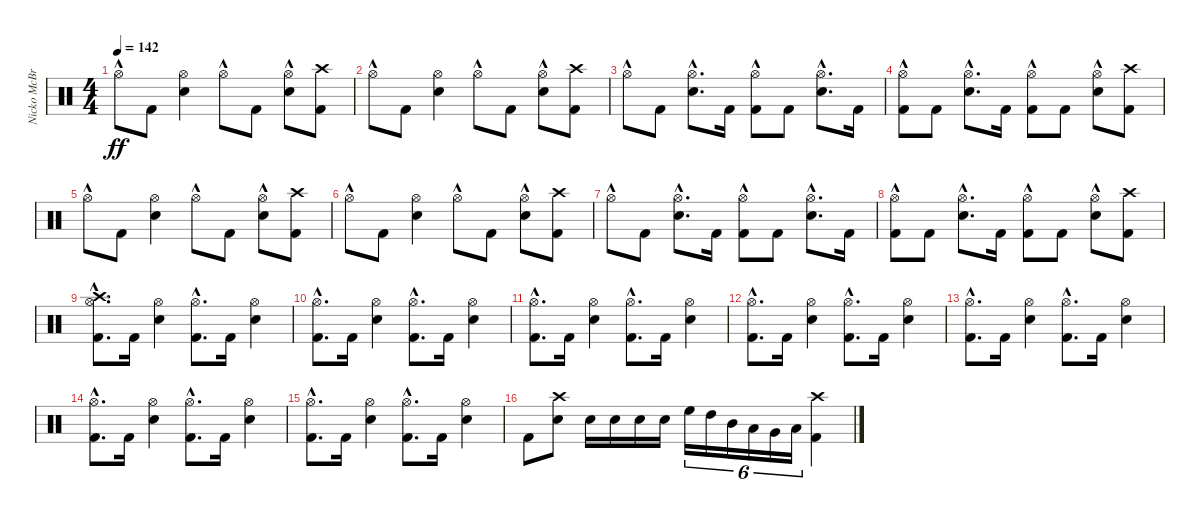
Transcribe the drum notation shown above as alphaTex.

\track ("Nicko McBrain" "Nicko McBr") {instrument percussion}
\staff {score}
\articulation defaults
\ts (4 4)
\tempo 142
\clef neutral
\ks c "Hi-Hat (open)"{hac}.8{dy ff} "Kick (hit) 2".8
("Snare (hit) 2" "Hi-Hat (open)").4 "Hi-Hat (open)"{hac}.8 "Kick (hit) 2".8 ("Snare (hit) 2" "Hi-Hat (open)"{hac}).8 ("Kick (hit) 2" "Crash high (hit)").8 |
"Hi-Hat (open)"{hac}.8 "Kick (hit) 2".8 ("Snare (hit) 2" "Hi-Hat (open)").4 "Hi-Hat (open)"{hac}.8 "Kick (hit) 2".8 ("Snare (hit) 2" "Hi-Hat (open)"{hac}).8 ("Kick (hit) 2" "Crash high (hit)").8 |
"Hi-Hat (open)"{hac}.8 "Kick (hit) 2".8 ("Snare (hit) 2"{hac} "Hi-Hat (open)"{hac}).8{d} "Kick (hit) 2".16 ("Kick (hit) 2" "Hi-Hat (open)"{hac}).8 "Kick (hit) 2".8 ("Snare (hit) 2"{hac} "Hi-Hat (open)"{hac}).8{d} "Kick (hit) 2".16 |
("Kick (hit) 2" "Hi-Hat (open)"{hac}).8 "Kick (hit) 2".8 ("Snare (hit) 2"{hac} "Hi-Hat (open)"{hac}).8{d} "Kick (hit) 2".16 ("Kick (hit) 2" "Hi-Hat (open)"{hac}).8 "Kick (hit) 2".8 ("Snare (hit) 2" "Hi-Hat (open)"{hac}).8 ("Kick (hit) 2" "Crash high (hit)").8 |
"Hi-Hat (open)"{hac}.8 "Kick (hit) 2".8 ("Snare (hit) 2" "Hi-Hat (open)").4 "Hi-Hat (open)"{hac}.8 "Kick (hit) 2".8 ("Snare (hit) 2" "Hi-Hat (open)"{hac}).8 ("Kick (hit) 2" "Crash high (hit)").8 |
"Hi-Hat (open)"{hac}.8 "Kick (hit) 2".8 ("Snare (hit) 2" "Hi-Hat (open)").4 "Hi-Hat (open)"{hac}.8 "Kick (hit) 2".8 ("Snare (hit) 2" "Hi-Hat (open)"{hac}).8 ("Kick (hit) 2" "Crash high (hit)").8 |
"Hi-Hat (open)"{hac}.8 "Kick (hit) 2".8 ("Snare (hit) 2"{hac} "Hi-Hat (open)"{hac}).8{d} "Kick (hit) 2".16 ("Kick (hit) 2" "Hi-Hat (open)"{hac}).8 "Kick (hit) 2".8 ("Snare (hit) 2"{hac} "Hi-Hat (open)"{hac}).8{d} "Kick (hit) 2".16 |
("Kick (hit) 2" "Hi-Hat (open)"{hac}).8 "Kick (hit) 2".8 ("Snare (hit) 2"{hac} "Hi-Hat (open)"{hac}).8{d} "Kick (hit) 2".16 ("Kick (hit) 2" "Hi-Hat (open)"{hac}).8 "Kick (hit) 2".8 ("Snare (hit) 2" "Hi-Hat (open)"{hac}).8 ("Kick (hit) 2" "Crash high (hit)").8 |
("Kick (hit) 2"{hac} "Hi-Hat (open)"{hac} "Crash high (hit)"{hac}).8{d} "Kick (hit) 2".16 ("Snare (hit) 2" "Hi-Hat (open)").4 ("Kick (hit) 2"{hac} "Hi-Hat (open)"{hac}).8{d} "Kick (hit) 2".16 ("Snare (hit) 2" "Hi-Hat (open)").4 |
("Kick (hit) 2"{hac} "Hi-Hat (open)"{hac}).8{d} "Kick (hit) 2".16 ("Snare (hit) 2" "Hi-Hat (open)").4 ("Kick (hit) 2"{hac} "Hi-Hat (open)"{hac}).8{d} "Kick (hit) 2".16 ("Snare (hit) 2" "Hi-Hat (open)").4 |
("Kick (hit) 2"{hac} "Hi-Hat (open)"{hac}).8{d} "Kick (hit) 2".16 ("Snare (hit) 2" "Hi-Hat (open)").4 ("Kick (hit) 2"{hac} "Hi-Hat (open)"{hac}).8{d} "Kick (hit) 2".16 ("Snare (hit) 2" "Hi-Hat (open)").4 |
("Kick (hit) 2"{hac} "Hi-Hat (open)"{hac}).8{d} "Kick (hit) 2".16 ("Snare (hit) 2" "Hi-Hat (open)").4 ("Kick (hit) 2"{hac} "Hi-Hat (open)"{hac}).8{d} "Kick (hit) 2".16 ("Snare (hit) 2" "Hi-Hat (open)").4 |
("Kick (hit) 2"{hac} "Hi-Hat (open)"{hac}).8{d} "Kick (hit) 2".16 ("Snare (hit) 2" "Hi-Hat (open)").4 ("Kick (hit) 2"{hac} "Hi-Hat (open)"{hac}).8{d} "Kick (hit) 2".16 ("Snare (hit) 2" "Hi-Hat (open)").4 |
("Kick (hit) 2"{hac} "Hi-Hat (open)"{hac}).8{d} "Kick (hit) 2".16 ("Snare (hit) 2" "Hi-Hat (open)").4 ("Kick (hit) 2"{hac} "Hi-Hat (open)"{hac}).8{d} "Kick (hit) 2".16 ("Snare (hit) 2" "Hi-Hat (open)").4 |
("Kick (hit) 2"{hac} "Hi-Hat (open)"{hac}).8{d} "Kick (hit) 2".16 ("Snare (hit) 2" "Hi-Hat (open)").4 ("Kick (hit) 2"{hac} "Hi-Hat (open)"{hac}).8{d} "Kick (hit) 2".16 ("Snare (hit) 2" "Hi-Hat (open)").4 |
"Kick (hit) 2".8 ("Snare (hit) 2" "Crash high (hit)").8 "Snare (hit) 2".16 "Snare (hit) 2".16 "Snare (hit) 2".16 "Snare (hit) 2".16 "High Floor Tom (hit)".16{tu (6 4)} "High Tom (hit)".16{tu (6 4)} "Mid Tom (hit)".16{tu (6 4)} "Low Tom (hit)".16{tu (6 4)} "Very Low Tom (hit)".16{tu (6 4)} "Low Floor Tom (hit)".16{tu (6 4)} ("Kick (hit) 2" "Crash high (hit)").4
